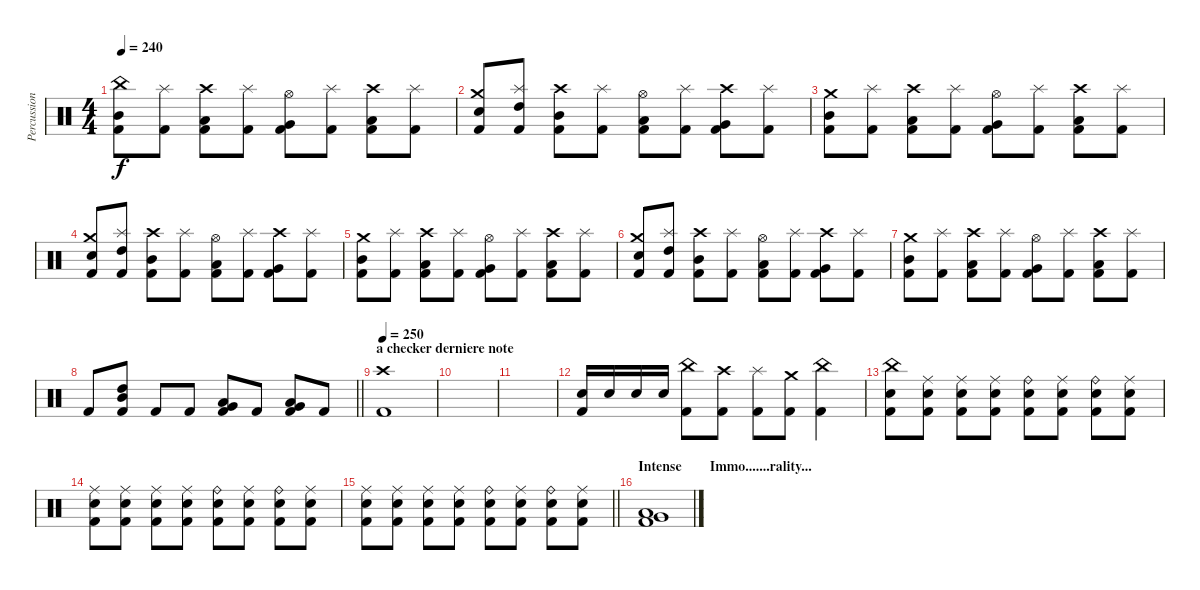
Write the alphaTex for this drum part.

\track ("Percussions" "Percussion") {instrument percussion}
\staff {score}
\articulation defaults
\ts (4 4)
\tempo 240
\clef neutral
\ks c
("China (hit)" "Mid Tom (hit)" "Kick (hit) 2").8{dy f} ("Splash (hit)" "Kick (hit) 2").8 ("Crash high (hit)" "Low Tom (hit)" "Kick (hit) 2").8 ("Splash (hit)" "Kick (hit) 2").8 ("Hi-Hat (open)" "Very Low Tom (hit)" "Kick (hit) 2").8 ("Splash (hit)" "Kick (hit) 2").8 ("Crash high (hit)" "Low Floor Tom (hit)" "Kick (hit) 2").8 ("Splash (hit)" "Kick (hit) 2").8 |
("Crash medium (hit)" "Electric Snare (hit)" "Kick (hit) 2").8 ("Splash (hit)" "High Tom (hit)" "Kick (hit) 2").8 ("Crash high (hit)" "Mid Tom (hit)" "Kick (hit) 2").8 ("Splash (hit)" "Kick (hit) 2").8 ("Hi-Hat (open)" "Low Tom (hit)" "Kick (hit) 2").8 ("Splash (hit)" "Kick (hit) 2").8 ("Crash high (hit)" "Very Low Tom (hit)" "Kick (hit) 2").8 ("Splash (hit)" "Kick (hit) 2").8 |
("Crash medium (hit)" "Mid Tom (hit)" "Kick (hit) 2").8 ("Splash (hit)" "Kick (hit) 2").8 ("Crash high (hit)" "Low Tom (hit)" "Kick (hit) 2").8 ("Splash (hit)" "Kick (hit) 2").8 ("Hi-Hat (open)" "Very Low Tom (hit)" "Kick (hit) 2").8 ("Splash (hit)" "Kick (hit) 2").8 ("Crash high (hit)" "Low Floor Tom (hit)" "Kick (hit) 2").8 ("Splash (hit)" "Kick (hit) 2").8 |
("Crash medium (hit)" "Electric Snare (hit)" "Kick (hit) 2").8 ("Splash (hit)" "High Tom (hit)" "Kick (hit) 2").8 ("Crash high (hit)" "Mid Tom (hit)" "Kick (hit) 2").8 ("Splash (hit)" "Kick (hit) 2").8 ("Hi-Hat (open)" "Low Tom (hit)" "Kick (hit) 2").8 ("Splash (hit)" "Kick (hit) 2").8 ("Crash high (hit)" "Very Low Tom (hit)" "Kick (hit) 2").8 ("Splash (hit)" "Kick (hit) 2").8 |
("Crash medium (hit)" "Mid Tom (hit)" "Kick (hit) 2").8 ("Splash (hit)" "Kick (hit) 2").8 ("Crash high (hit)" "Low Tom (hit)" "Kick (hit) 2").8 ("Splash (hit)" "Kick (hit) 2").8 ("Hi-Hat (open)" "Very Low Tom (hit)" "Kick (hit) 2").8 ("Splash (hit)" "Kick (hit) 2").8 ("Crash high (hit)" "Low Floor Tom (hit)" "Kick (hit) 2").8 ("Splash (hit)" "Kick (hit) 2").8 |
("Crash medium (hit)" "Electric Snare (hit)" "Kick (hit) 2").8 ("Splash (hit)" "High Tom (hit)" "Kick (hit) 2").8 ("Crash high (hit)" "Mid Tom (hit)" "Kick (hit) 2").8 ("Splash (hit)" "Kick (hit) 2").8 ("Hi-Hat (open)" "Low Tom (hit)" "Kick (hit) 2").8 ("Splash (hit)" "Kick (hit) 2").8 ("Crash high (hit)" "Very Low Tom (hit)" "Kick (hit) 2").8 ("Splash (hit)" "Kick (hit) 2").8 |
("Crash medium (hit)" "Mid Tom (hit)" "Kick (hit) 2").8 ("Splash (hit)" "Kick (hit) 2").8 ("Crash high (hit)" "Low Tom (hit)" "Kick (hit) 2").8 ("Splash (hit)" "Kick (hit) 2").8 ("Hi-Hat (open)" "Very Low Tom (hit)" "Kick (hit) 2").8 ("Splash (hit)" "Kick (hit) 2").8 ("Crash high (hit)" "Low Floor Tom (hit)" "Kick (hit) 2").8 ("Splash (hit)" "Kick (hit) 2").8 |
\barLineRight lightlight "Kick (hit) 2".8
("Mid Tom (hit)" "High Tom (hit)" "Kick (hit) 2").8 "Kick (hit) 2".8 "Kick (hit) 2".8 ("Low Tom (hit)" "Very Low Tom (hit)" "Kick (hit) 2").8 "Kick (hit) 2".8 ("Very Low Tom (hit)" "Low Floor Tom (hit)" "Kick (hit) 2").8 "Kick (hit) 2".8 |
\section ("" "a checker derniere note")
\tempo 250
("Crash high (hit)" "Kick (hit) 2").1 |
|
|
("Electric Snare (hit)" "Kick (hit) 2").16 "Electric Snare (hit)".16 "Electric Snare (hit)".16 "Electric Snare (hit)".16 ("China (hit)" "Kick (hit) 2").8 ("Crash high (hit)" "Kick (hit) 2").8 ("Splash (hit)" "Kick (hit) 2").8 ("Crash medium (hit)" "Kick (hit) 2").8 ("China (hit)" "Kick (hit) 2").4 |
("China (hit)" "Electric Snare (hit)" "Kick (hit) 2").8 ("Ride (middle)" "Electric Snare (hit)" "Kick (hit) 2").8 ("Ride (middle)" "Electric Snare (hit)" "Kick (hit) 2").8 ("Ride (middle)" "Electric Snare (hit)" "Kick (hit) 2").8 ("Ride (bell)" "Electric Snare (hit)" "Kick (hit) 2").8 ("Ride (middle)" "Electric Snare (hit)" "Kick (hit) 2").8 ("Ride (bell)" "Electric Snare (hit)" "Kick (hit) 2").8 ("Ride (middle)" "Electric Snare (hit)" "Kick (hit) 2").8 |
("Ride (middle)" "Electric Snare (hit)" "Kick (hit) 2").8 ("Ride (middle)" "Electric Snare (hit)" "Kick (hit) 2").8 ("Ride (middle)" "Electric Snare (hit)" "Kick (hit) 2").8 ("Ride (middle)" "Electric Snare (hit)" "Kick (hit) 2").8 ("Ride (bell)" "Electric Snare (hit)" "Kick (hit) 2").8 ("Ride (middle)" "Electric Snare (hit)" "Kick (hit) 2").8 ("Ride (bell)" "Electric Snare (hit)" "Kick (hit) 2").8 ("Ride (middle)" "Electric Snare (hit)" "Kick (hit) 2").8 |
\barLineRight lightlight
("Ride (middle)" "Electric Snare (hit)" "Kick (hit) 2").8 ("Ride (middle)" "Electric Snare (hit)" "Kick (hit) 2").8 ("Ride (middle)" "Electric Snare (hit)" "Kick (hit) 2").8 ("Ride (middle)" "Electric Snare (hit)" "Kick (hit) 2").8 ("Ride (bell)" "Electric Snare (hit)" "Kick (hit) 2").8 ("Ride (middle)" "Electric Snare (hit)" "Kick (hit) 2").8 ("Ride (bell)" "Electric Snare (hit)" "Kick (hit) 2").8 ("Ride (middle)" "Electric Snare (hit)" "Kick (hit) 2").8 |
\section ("" "Intense        Immo.......rality...")
("Very Low Tom (hit)" "Low Floor Tom (hit)" "Kick (hit) 2").1
